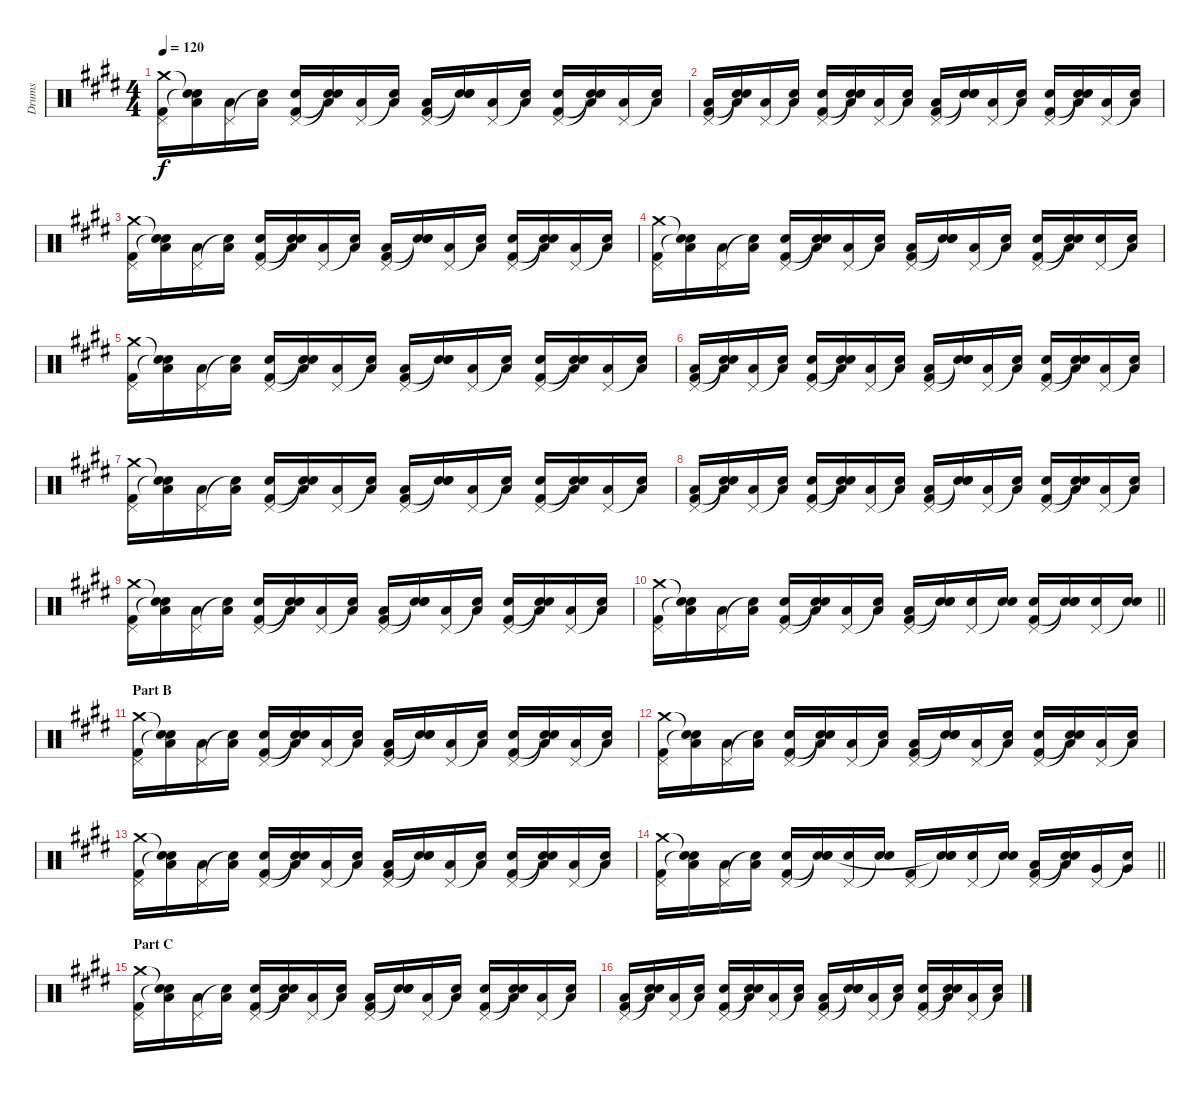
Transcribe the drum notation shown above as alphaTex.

\track ("Drums" "Drums") {instrument percussion}
\staff {score}
\articulation defaults
\ts (4 4)
\tempo 120
\clef neutral
\ks e
("Crash medium (hit)" "Pedal Hi-Hat (hit)" "Kick (hit) 2").16{dy f} ("Snare (hit)"{t} "Low Floor Tom (hit)" "Snare (hit)"{t}).16 ("Pedal Hi-Hat (hit)" "Low Floor Tom (hit)").16 ("Snare (hit)"{t} "Low Floor Tom (hit)").16 ("Pedal Hi-Hat (hit)" "Electric Snare (hit)" "Kick (hit) 2").16 ("Snare (hit)"{t} "Low Floor Tom (hit)" "Snare (hit)"{t}).16 ("Pedal Hi-Hat (hit)" "Low Floor Tom (hit)").16 ("Snare (hit)"{t} "Low Floor Tom (hit)").16 ("Pedal Hi-Hat (hit)" "Low Floor Tom (hit)" "Kick (hit) 2").16 ("Snare (hit)"{t} "Electric Snare (hit)" "Snare (hit)"{t}).16 ("Pedal Hi-Hat (hit)" "Low Floor Tom (hit)").16 ("Snare (hit)"{t} "Low Floor Tom (hit)").16 ("Pedal Hi-Hat (hit)" "Electric Snare (hit)" "Kick (hit) 2").16 ("Snare (hit)"{t} "Low Floor Tom (hit)" "Snare (hit)"{t}).16 ("Pedal Hi-Hat (hit)" "Low Floor Tom (hit)").16 ("Snare (hit)"{t} "Low Floor Tom (hit)").16 |
("Pedal Hi-Hat (hit)" "Low Floor Tom (hit)" "Kick (hit) 2").16 ("Snare (hit)"{t} "Low Floor Tom (hit)" "Snare (hit)"{t}).16 ("Pedal Hi-Hat (hit)" "Low Floor Tom (hit)").16 ("Snare (hit)"{t} "Low Floor Tom (hit)").16 ("Pedal Hi-Hat (hit)" "Electric Snare (hit)" "Kick (hit) 2").16 ("Snare (hit)"{t} "Low Floor Tom (hit)" "Snare (hit)"{t}).16 ("Pedal Hi-Hat (hit)" "Low Floor Tom (hit)").16 ("Snare (hit)"{t} "Low Floor Tom (hit)").16 ("Pedal Hi-Hat (hit)" "Low Floor Tom (hit)" "Kick (hit) 2").16 ("Snare (hit)"{t} "Electric Snare (hit)" "Snare (hit)"{t}).16 ("Pedal Hi-Hat (hit)" "Low Floor Tom (hit)").16 ("Snare (hit)"{t} "Low Floor Tom (hit)").16 ("Pedal Hi-Hat (hit)" "Electric Snare (hit)" "Kick (hit) 2").16 ("Snare (hit)"{t} "Low Floor Tom (hit)" "Snare (hit)"{t}).16 ("Pedal Hi-Hat (hit)" "Low Floor Tom (hit)").16 ("Snare (hit)"{t} "Low Floor Tom (hit)").16 |
("Crash medium (hit)" "Pedal Hi-Hat (hit)" "Kick (hit) 2").16 ("Snare (hit)"{t} "Low Floor Tom (hit)" "Snare (hit)"{t}).16 ("Pedal Hi-Hat (hit)" "Low Floor Tom (hit)").16 ("Snare (hit)"{t} "Low Floor Tom (hit)").16 ("Pedal Hi-Hat (hit)" "Electric Snare (hit)" "Kick (hit) 2").16 ("Snare (hit)"{t} "Low Floor Tom (hit)" "Snare (hit)"{t}).16 ("Pedal Hi-Hat (hit)" "Low Floor Tom (hit)").16 ("Snare (hit)"{t} "Low Floor Tom (hit)").16 ("Pedal Hi-Hat (hit)" "Low Floor Tom (hit)" "Kick (hit) 2").16 ("Snare (hit)"{t} "Electric Snare (hit)" "Snare (hit)"{t}).16 ("Pedal Hi-Hat (hit)" "Low Floor Tom (hit)").16 ("Snare (hit)"{t} "Low Floor Tom (hit)").16 ("Pedal Hi-Hat (hit)" "Electric Snare (hit)" "Kick (hit) 2").16 ("Snare (hit)"{t} "Low Floor Tom (hit)" "Snare (hit)"{t}).16 ("Pedal Hi-Hat (hit)" "Low Floor Tom (hit)").16 ("Snare (hit)"{t} "Low Floor Tom (hit)").16 |
("Crash medium (hit)" "Pedal Hi-Hat (hit)" "Kick (hit) 2").16 ("Snare (hit)"{t} "Low Floor Tom (hit)" "Snare (hit)"{t}).16 ("Pedal Hi-Hat (hit)" "Low Floor Tom (hit)").16 ("Snare (hit)"{t} "Low Floor Tom (hit)").16 ("Pedal Hi-Hat (hit)" "Electric Snare (hit)" "Kick (hit) 2").16 ("Snare (hit)"{t} "Low Floor Tom (hit)" "Snare (hit)"{t}).16 ("Pedal Hi-Hat (hit)" "Low Floor Tom (hit)").16 ("Snare (hit)"{t} "Low Floor Tom (hit)").16 ("Pedal Hi-Hat (hit)" "Low Floor Tom (hit)" "Kick (hit) 2").16 ("Snare (hit)"{t} "Electric Snare (hit)" "Snare (hit)"{t}).16 ("Pedal Hi-Hat (hit)" "Low Floor Tom (hit)").16 ("Snare (hit)"{t} "Low Floor Tom (hit)").16 ("Pedal Hi-Hat (hit)" "Electric Snare (hit)" "Kick (hit) 2").16 ("Snare (hit)"{t} "Low Floor Tom (hit)" "Snare (hit)"{t}).16 ("Pedal Hi-Hat (hit)" "Electric Snare (hit)").16 ("Snare (hit)"{t} "Low Floor Tom (hit)").16 |
("Crash medium (hit)" "Pedal Hi-Hat (hit)" "Kick (hit) 2").16 ("Snare (hit)"{t} "Low Floor Tom (hit)" "Snare (hit)"{t}).16 ("Pedal Hi-Hat (hit)" "Low Floor Tom (hit)").16 ("Snare (hit)"{t} "Low Floor Tom (hit)").16 ("Pedal Hi-Hat (hit)" "Electric Snare (hit)" "Kick (hit) 2").16 ("Snare (hit)"{t} "Low Floor Tom (hit)" "Snare (hit)"{t}).16 ("Pedal Hi-Hat (hit)" "Low Floor Tom (hit)").16 ("Snare (hit)"{t} "Low Floor Tom (hit)").16 ("Pedal Hi-Hat (hit)" "Low Floor Tom (hit)" "Kick (hit) 2").16 ("Snare (hit)"{t} "Electric Snare (hit)" "Snare (hit)"{t}).16 ("Pedal Hi-Hat (hit)" "Low Floor Tom (hit)").16 ("Snare (hit)"{t} "Low Floor Tom (hit)").16 ("Pedal Hi-Hat (hit)" "Electric Snare (hit)" "Kick (hit) 2").16 ("Snare (hit)"{t} "Low Floor Tom (hit)" "Snare (hit)"{t}).16 ("Pedal Hi-Hat (hit)" "Low Floor Tom (hit)").16 ("Snare (hit)"{t} "Low Floor Tom (hit)").16 |
("Pedal Hi-Hat (hit)" "Low Floor Tom (hit)" "Kick (hit) 2").16 ("Snare (hit)"{t} "Low Floor Tom (hit)" "Snare (hit)"{t}).16 ("Pedal Hi-Hat (hit)" "Low Floor Tom (hit)").16 ("Snare (hit)"{t} "Low Floor Tom (hit)").16 ("Pedal Hi-Hat (hit)" "Electric Snare (hit)" "Kick (hit) 2").16 ("Snare (hit)"{t} "Low Floor Tom (hit)" "Snare (hit)"{t}).16 ("Pedal Hi-Hat (hit)" "Low Floor Tom (hit)").16 ("Snare (hit)"{t} "Low Floor Tom (hit)").16 ("Pedal Hi-Hat (hit)" "Low Floor Tom (hit)" "Kick (hit) 2").16 ("Snare (hit)"{t} "Electric Snare (hit)" "Snare (hit)"{t}).16 ("Pedal Hi-Hat (hit)" "Low Floor Tom (hit)").16 ("Snare (hit)"{t} "Low Floor Tom (hit)").16 ("Pedal Hi-Hat (hit)" "Electric Snare (hit)" "Kick (hit) 2").16 ("Snare (hit)"{t} "Low Floor Tom (hit)" "Snare (hit)"{t}).16 ("Pedal Hi-Hat (hit)" "Low Floor Tom (hit)").16 ("Snare (hit)"{t} "Low Floor Tom (hit)").16 |
("Crash medium (hit)" "Pedal Hi-Hat (hit)" "Kick (hit) 2").16 ("Snare (hit)"{t} "Low Floor Tom (hit)" "Snare (hit)"{t}).16 ("Pedal Hi-Hat (hit)" "Low Floor Tom (hit)").16 ("Snare (hit)"{t} "Low Floor Tom (hit)").16 ("Pedal Hi-Hat (hit)" "Electric Snare (hit)" "Kick (hit) 2").16 ("Snare (hit)"{t} "Low Floor Tom (hit)" "Snare (hit)"{t}).16 ("Pedal Hi-Hat (hit)" "Low Floor Tom (hit)").16 ("Snare (hit)"{t} "Low Floor Tom (hit)").16 ("Pedal Hi-Hat (hit)" "Low Floor Tom (hit)" "Kick (hit) 2").16 ("Snare (hit)"{t} "Electric Snare (hit)" "Snare (hit)"{t}).16 ("Pedal Hi-Hat (hit)" "Low Floor Tom (hit)").16 ("Snare (hit)"{t} "Low Floor Tom (hit)").16 ("Pedal Hi-Hat (hit)" "Electric Snare (hit)" "Kick (hit) 2").16 ("Snare (hit)"{t} "Low Floor Tom (hit)" "Snare (hit)"{t}).16 ("Pedal Hi-Hat (hit)" "Low Floor Tom (hit)").16 ("Snare (hit)"{t} "Low Floor Tom (hit)").16 |
("Pedal Hi-Hat (hit)" "Low Floor Tom (hit)" "Kick (hit) 2").16 ("Snare (hit)"{t} "Low Floor Tom (hit)" "Snare (hit)"{t}).16 ("Pedal Hi-Hat (hit)" "Low Floor Tom (hit)").16 ("Snare (hit)"{t} "Low Floor Tom (hit)").16 ("Pedal Hi-Hat (hit)" "Electric Snare (hit)" "Kick (hit) 2").16 ("Snare (hit)"{t} "Low Floor Tom (hit)" "Snare (hit)"{t}).16 ("Pedal Hi-Hat (hit)" "Low Floor Tom (hit)").16 ("Snare (hit)"{t} "Low Floor Tom (hit)").16 ("Pedal Hi-Hat (hit)" "Low Floor Tom (hit)" "Kick (hit) 2").16 ("Snare (hit)"{t} "Electric Snare (hit)" "Snare (hit)"{t}).16 ("Pedal Hi-Hat (hit)" "Low Floor Tom (hit)").16 ("Snare (hit)"{t} "Low Floor Tom (hit)").16 ("Pedal Hi-Hat (hit)" "Electric Snare (hit)" "Kick (hit) 2").16 ("Snare (hit)"{t} "Low Floor Tom (hit)" "Snare (hit)"{t}).16 ("Pedal Hi-Hat (hit)" "Low Floor Tom (hit)").16 ("Snare (hit)"{t} "Low Floor Tom (hit)").16 |
("Crash medium (hit)" "Pedal Hi-Hat (hit)" "Kick (hit) 2").16 ("Snare (hit)"{t} "Low Floor Tom (hit)" "Snare (hit)"{t}).16 ("Pedal Hi-Hat (hit)" "Low Floor Tom (hit)").16 ("Snare (hit)"{t} "Low Floor Tom (hit)").16 ("Pedal Hi-Hat (hit)" "Electric Snare (hit)" "Kick (hit) 2").16 ("Snare (hit)"{t} "Low Floor Tom (hit)" "Snare (hit)"{t}).16 ("Pedal Hi-Hat (hit)" "Low Floor Tom (hit)").16 ("Snare (hit)"{t} "Low Floor Tom (hit)").16 ("Pedal Hi-Hat (hit)" "Low Floor Tom (hit)" "Kick (hit) 2").16 ("Snare (hit)"{t} "Electric Snare (hit)" "Snare (hit)"{t}).16 ("Pedal Hi-Hat (hit)" "Low Floor Tom (hit)").16 ("Snare (hit)"{t} "Low Floor Tom (hit)").16 ("Pedal Hi-Hat (hit)" "Electric Snare (hit)" "Kick (hit) 2").16 ("Snare (hit)"{t} "Low Floor Tom (hit)" "Snare (hit)"{t}).16 ("Pedal Hi-Hat (hit)" "Low Floor Tom (hit)").16 ("Snare (hit)"{t} "Low Floor Tom (hit)").16 |
\barLineRight lightlight
("Crash medium (hit)" "Pedal Hi-Hat (hit)" "Kick (hit) 2").16 ("Snare (hit)"{t} "Low Floor Tom (hit)" "Snare (hit)"{t}).16 ("Pedal Hi-Hat (hit)" "Low Floor Tom (hit)").16 ("Snare (hit)"{t} "Low Floor Tom (hit)").16 ("Pedal Hi-Hat (hit)" "Electric Snare (hit)" "Kick (hit) 2").16 ("Snare (hit)"{t} "Low Floor Tom (hit)" "Snare (hit)"{t}).16 ("Pedal Hi-Hat (hit)" "Low Floor Tom (hit)").16 ("Snare (hit)"{t} "Low Floor Tom (hit)").16 ("Pedal Hi-Hat (hit)" "Low Floor Tom (hit)" "Kick (hit) 2").16 ("Snare (hit)"{t} "Electric Snare (hit)" "Snare (hit)"{t}).16 ("Pedal Hi-Hat (hit)" "Electric Snare (hit)").16 ("Snare (hit)"{t} "Electric Snare (hit)").16 ("Pedal Hi-Hat (hit)" "Electric Snare (hit)" "Kick (hit) 2").16 ("Snare (hit)"{t} "Electric Snare (hit)" "Snare (hit)"{t}).16 ("Pedal Hi-Hat (hit)" "Electric Snare (hit)").16 ("Snare (hit)"{t} "Electric Snare (hit)").16 |
\section ("" "Part B")
("Crash medium (hit)" "Pedal Hi-Hat (hit)" "Kick (hit) 2").16 ("Snare (hit)"{t} "Low Floor Tom (hit)" "Snare (hit)"{t}).16 ("Pedal Hi-Hat (hit)" "Low Floor Tom (hit)").16 ("Snare (hit)"{t} "Low Floor Tom (hit)").16 ("Pedal Hi-Hat (hit)" "Electric Snare (hit)" "Kick (hit) 2").16 ("Snare (hit)"{t} "Low Floor Tom (hit)" "Snare (hit)"{t}).16 ("Pedal Hi-Hat (hit)" "Low Floor Tom (hit)").16 ("Snare (hit)"{t} "Low Floor Tom (hit)").16 ("Pedal Hi-Hat (hit)" "Low Floor Tom (hit)" "Kick (hit) 2").16 ("Snare (hit)"{t} "Electric Snare (hit)" "Snare (hit)"{t}).16 ("Pedal Hi-Hat (hit)" "Low Floor Tom (hit)").16 ("Snare (hit)"{t} "Low Floor Tom (hit)").16 ("Pedal Hi-Hat (hit)" "Electric Snare (hit)" "Kick (hit) 2").16 ("Snare (hit)"{t} "Low Floor Tom (hit)" "Snare (hit)"{t}).16 ("Pedal Hi-Hat (hit)" "Low Floor Tom (hit)").16 ("Snare (hit)"{t} "Low Floor Tom (hit)").16 |
("Crash medium (hit)" "Pedal Hi-Hat (hit)" "Kick (hit) 2").16 ("Snare (hit)"{t} "Low Floor Tom (hit)" "Snare (hit)"{t}).16 ("Pedal Hi-Hat (hit)" "Low Floor Tom (hit)").16 ("Snare (hit)"{t} "Low Floor Tom (hit)").16 ("Pedal Hi-Hat (hit)" "Electric Snare (hit)" "Kick (hit) 2").16 ("Snare (hit)"{t} "Low Floor Tom (hit)" "Snare (hit)"{t}).16 ("Pedal Hi-Hat (hit)" "Low Floor Tom (hit)").16 ("Snare (hit)"{t} "Low Floor Tom (hit)").16 ("Pedal Hi-Hat (hit)" "Low Floor Tom (hit)" "Kick (hit) 2").16 ("Snare (hit)"{t} "Electric Snare (hit)" "Snare (hit)"{t}).16 ("Pedal Hi-Hat (hit)" "Low Floor Tom (hit)").16 ("Snare (hit)"{t} "Low Floor Tom (hit)").16 ("Pedal Hi-Hat (hit)" "Electric Snare (hit)" "Kick (hit) 2").16 ("Snare (hit)"{t} "Low Floor Tom (hit)" "Snare (hit)"{t}).16 ("Pedal Hi-Hat (hit)" "Low Floor Tom (hit)").16 ("Snare (hit)"{t} "Low Floor Tom (hit)").16 |
("Crash medium (hit)" "Pedal Hi-Hat (hit)" "Kick (hit) 2").16 ("Snare (hit)"{t} "Low Floor Tom (hit)" "Snare (hit)"{t}).16 ("Pedal Hi-Hat (hit)" "Low Floor Tom (hit)").16 ("Snare (hit)"{t} "Low Floor Tom (hit)").16 ("Pedal Hi-Hat (hit)" "Electric Snare (hit)" "Kick (hit) 2").16 ("Snare (hit)"{t} "Low Floor Tom (hit)" "Snare (hit)"{t}).16 ("Pedal Hi-Hat (hit)" "Low Floor Tom (hit)").16 ("Snare (hit)"{t} "Low Floor Tom (hit)").16 ("Pedal Hi-Hat (hit)" "Low Floor Tom (hit)" "Kick (hit) 2").16 ("Snare (hit)"{t} "Electric Snare (hit)" "Snare (hit)"{t}).16 ("Pedal Hi-Hat (hit)" "Low Floor Tom (hit)").16 ("Snare (hit)"{t} "Low Floor Tom (hit)").16 ("Pedal Hi-Hat (hit)" "Electric Snare (hit)" "Kick (hit) 2").16 ("Snare (hit)"{t} "Low Floor Tom (hit)" "Snare (hit)"{t}).16 ("Pedal Hi-Hat (hit)" "Low Floor Tom (hit)").16 ("Snare (hit)"{t} "Low Floor Tom (hit)").16 |
\barLineRight lightlight
("Crash medium (hit)" "Pedal Hi-Hat (hit)" "Kick (hit) 2").16 ("Snare (hit)"{t} "Low Floor Tom (hit)" "Snare (hit)"{t}).16 ("Pedal Hi-Hat (hit)" "Low Floor Tom (hit)").16 ("Snare (hit)"{t} "Low Floor Tom (hit)").16 ("Pedal Hi-Hat (hit)" "Electric Snare (hit)" "Kick (hit) 2").16 ("Snare (hit)"{t} "Electric Snare (hit)" "Snare (hit)"{t}).16 ("Pedal Hi-Hat (hit)" "Electric Snare (hit)").16 ("Snare (hit)"{t} "Electric Snare (hit)").16 ("Pedal Hi-Hat (hit)" "Kick (hit) 2").16 ("Snare (hit)"{t} "Electric Snare (hit)" "Snare (hit)"{t}).16 ("Pedal Hi-Hat (hit)" "Electric Snare (hit)").16 ("Snare (hit)"{t} "Electric Snare (hit)").16 ("Pedal Hi-Hat (hit)" "Low Tom (hit)" "Kick (hit) 2").16 ("Snare (hit)"{t} "Low Tom (hit)" "Snare (hit)"{t}).16 ("Pedal Hi-Hat (hit)" "Very Low Tom (hit)").16 ("Snare (hit)"{t} "Very Low Tom (hit)").16 |
\section ("" "Part C")
("Crash medium (hit)" "Pedal Hi-Hat (hit)" "Kick (hit) 2").16 ("Snare (hit)"{t} "Low Floor Tom (hit)" "Snare (hit)"{t}).16 ("Pedal Hi-Hat (hit)" "Low Floor Tom (hit)").16 ("Snare (hit)"{t} "Low Floor Tom (hit)").16 ("Pedal Hi-Hat (hit)" "Electric Snare (hit)" "Kick (hit) 2").16 ("Snare (hit)"{t} "Low Floor Tom (hit)" "Snare (hit)"{t}).16 ("Pedal Hi-Hat (hit)" "Low Floor Tom (hit)").16 ("Snare (hit)"{t} "Low Floor Tom (hit)").16 ("Pedal Hi-Hat (hit)" "Low Floor Tom (hit)" "Kick (hit) 2").16 ("Snare (hit)"{t} "Electric Snare (hit)" "Snare (hit)"{t}).16 ("Pedal Hi-Hat (hit)" "Low Floor Tom (hit)").16 ("Snare (hit)"{t} "Low Floor Tom (hit)").16 ("Pedal Hi-Hat (hit)" "Electric Snare (hit)" "Kick (hit) 2").16 ("Snare (hit)"{t} "Low Floor Tom (hit)" "Snare (hit)"{t}).16 ("Pedal Hi-Hat (hit)" "Low Floor Tom (hit)").16 ("Snare (hit)"{t} "Low Floor Tom (hit)").16 |
("Pedal Hi-Hat (hit)" "Low Floor Tom (hit)" "Kick (hit) 2").16 ("Snare (hit)"{t} "Low Floor Tom (hit)" "Snare (hit)"{t}).16 ("Pedal Hi-Hat (hit)" "Low Floor Tom (hit)").16 ("Snare (hit)"{t} "Low Floor Tom (hit)").16 ("Pedal Hi-Hat (hit)" "Electric Snare (hit)" "Kick (hit) 2").16 ("Snare (hit)"{t} "Low Floor Tom (hit)" "Snare (hit)"{t}).16 ("Pedal Hi-Hat (hit)" "Low Floor Tom (hit)").16 ("Snare (hit)"{t} "Low Floor Tom (hit)").16 ("Pedal Hi-Hat (hit)" "Low Floor Tom (hit)" "Kick (hit) 2").16 ("Snare (hit)"{t} "Electric Snare (hit)" "Snare (hit)"{t}).16 ("Pedal Hi-Hat (hit)" "Low Floor Tom (hit)").16 ("Snare (hit)"{t} "Low Floor Tom (hit)").16 ("Pedal Hi-Hat (hit)" "Electric Snare (hit)" "Kick (hit) 2").16 ("Snare (hit)"{t} "Low Floor Tom (hit)" "Snare (hit)"{t}).16 ("Pedal Hi-Hat (hit)" "Low Floor Tom (hit)").16 ("Snare (hit)"{t} "Low Floor Tom (hit)").16
